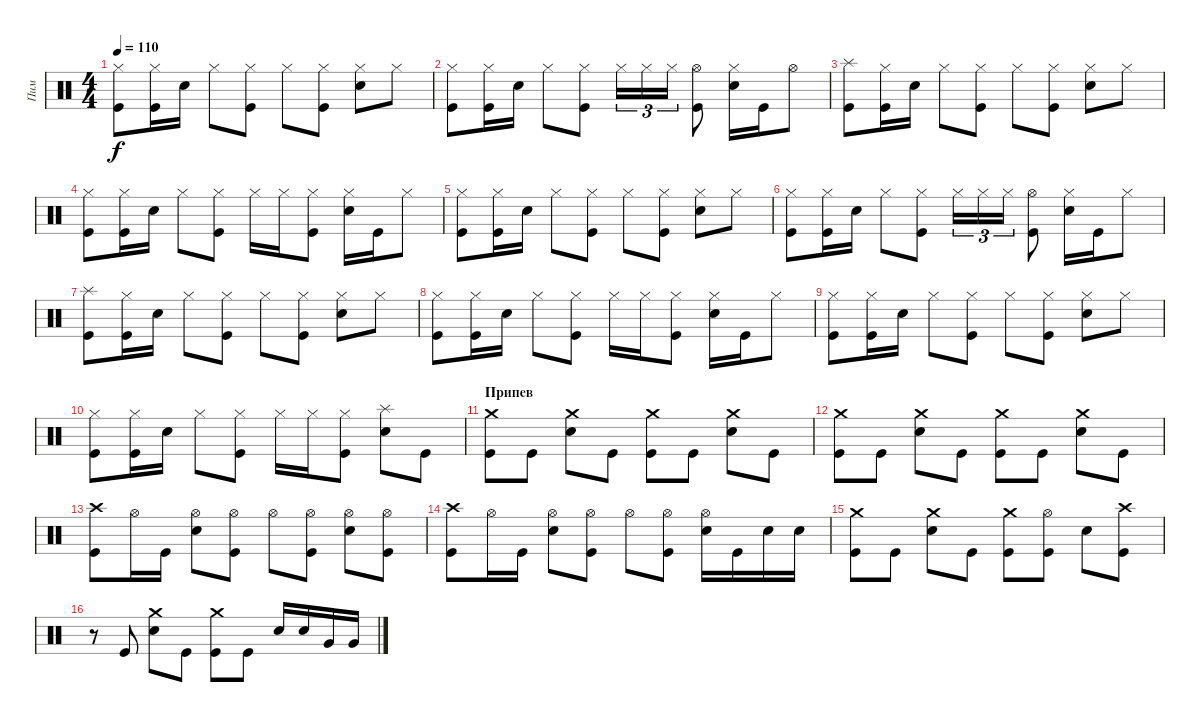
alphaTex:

\track ("Пим" "Пим") {instrument percussion}
\staff {score}
\articulation defaults
\ts (4 4)
\tempo 110
\clef neutral
\ks c
("Hi-Hat (closed)" "Kick (hit)").8{dy f} ("Hi-Hat (closed)" "Kick (hit)").16 "Snare (hit) 2".16 "Hi-Hat (closed)".8 ("Hi-Hat (closed)" "Kick (hit)").8 "Hi-Hat (closed)".8 ("Hi-Hat (closed)" "Kick (hit)").8 ("Hi-Hat (closed)" "Snare (hit) 2").8 "Hi-Hat (closed)".8 |
("Hi-Hat (closed)" "Kick (hit)").8 ("Hi-Hat (closed)" "Kick (hit)").16 "Snare (hit) 2".16 "Hi-Hat (closed)".8 ("Hi-Hat (closed)" "Kick (hit)").8 "Hi-Hat (closed)".16{tu (3 2)} "Hi-Hat (closed)".16{tu (3 2)} "Hi-Hat (closed)".16{tu (3 2)} ("Hi-Hat (open)" "Kick (hit)").8 ("Hi-Hat (closed)" "Snare (hit) 2").16 "Kick (hit)".16 "Hi-Hat (open)".8 |
("Splash (hit)" "Kick (hit)").8 ("Hi-Hat (closed)" "Kick (hit)").16 "Snare (hit) 2".16 "Hi-Hat (closed)".8 ("Hi-Hat (closed)" "Kick (hit)").8 "Hi-Hat (closed)".8 ("Hi-Hat (closed)" "Kick (hit)").8 ("Hi-Hat (closed)" "Snare (hit) 2").8 "Hi-Hat (closed)".8 |
("Hi-Hat (closed)" "Kick (hit)").8 ("Hi-Hat (closed)" "Kick (hit)").16 "Snare (hit) 2".16 "Hi-Hat (closed)".8 ("Hi-Hat (closed)" "Kick (hit)").8 "Hi-Hat (closed)".16 "Hi-Hat (closed)".16 ("Hi-Hat (closed)" "Kick (hit)").8 ("Hi-Hat (closed)" "Snare (hit) 2").16 "Kick (hit)".16 "Hi-Hat (closed)".8 |
("Hi-Hat (closed)" "Kick (hit)").8 ("Hi-Hat (closed)" "Kick (hit)").16 "Snare (hit) 2".16 "Hi-Hat (closed)".8 ("Hi-Hat (closed)" "Kick (hit)").8 "Hi-Hat (closed)".8 ("Hi-Hat (closed)" "Kick (hit)").8 ("Hi-Hat (closed)" "Snare (hit) 2").8 "Hi-Hat (closed)".8 |
("Hi-Hat (closed)" "Kick (hit)").8 ("Hi-Hat (closed)" "Kick (hit)").16 "Snare (hit) 2".16 "Hi-Hat (closed)".8 ("Hi-Hat (closed)" "Kick (hit)").8 "Hi-Hat (closed)".16{tu (3 2)} "Hi-Hat (closed)".16{tu (3 2)} "Hi-Hat (closed)".16{tu (3 2)} ("Hi-Hat (open)" "Kick (hit)").8 ("Hi-Hat (closed)" "Snare (hit) 2").16 "Kick (hit)".16 "Hi-Hat (closed)".8 |
("Splash (hit)" "Kick (hit)").8 ("Hi-Hat (closed)" "Kick (hit)").16 "Snare (hit) 2".16 "Hi-Hat (closed)".8 ("Hi-Hat (closed)" "Kick (hit)").8 "Hi-Hat (closed)".8 ("Hi-Hat (closed)" "Kick (hit)").8 ("Hi-Hat (closed)" "Snare (hit) 2").8 "Hi-Hat (closed)".8 |
("Hi-Hat (closed)" "Kick (hit)").8 ("Hi-Hat (closed)" "Kick (hit)").16 "Snare (hit) 2".16 "Hi-Hat (closed)".8 ("Hi-Hat (closed)" "Kick (hit)").8 "Hi-Hat (closed)".16 "Hi-Hat (closed)".16 ("Hi-Hat (closed)" "Kick (hit)").8 ("Hi-Hat (closed)" "Snare (hit) 2").16 "Kick (hit)".16 "Hi-Hat (closed)".8 |
("Hi-Hat (closed)" "Kick (hit)").8 ("Hi-Hat (closed)" "Kick (hit)").16 "Snare (hit) 2".16 "Hi-Hat (closed)".8 ("Hi-Hat (closed)" "Kick (hit)").8 "Hi-Hat (closed)".8 ("Hi-Hat (closed)" "Kick (hit)").8 ("Hi-Hat (closed)" "Snare (hit) 2").8 "Hi-Hat (closed)".8 |
("Hi-Hat (closed)" "Kick (hit)").8 ("Hi-Hat (closed)" "Kick (hit)").16 "Snare (hit) 2".16 "Hi-Hat (closed)".8 ("Hi-Hat (closed)" "Kick (hit)").8 "Hi-Hat (closed)".16 "Hi-Hat (closed)".16 ("Hi-Hat (closed)" "Kick (hit)").8 ("Splash (hit)" "Snare (hit) 2").8 "Kick (hit)".8 |
\section ("" "Припев")
("Crash medium (hit)" "Kick (hit)").8 "Kick (hit)".8 ("Crash medium (hit)" "Snare (hit) 2").8 "Kick (hit)".8 ("Crash medium (hit)" "Kick (hit)").8 "Kick (hit)".8 ("Crash medium (hit)" "Snare (hit) 2").8 "Kick (hit)".8 |
("Crash medium (hit)" "Kick (hit)").8 "Kick (hit)".8 ("Crash medium (hit)" "Snare (hit) 2").8 "Kick (hit)".8 ("Crash medium (hit)" "Kick (hit)").8 "Kick (hit)".8 ("Crash medium (hit)" "Snare (hit) 2").8 "Kick (hit)".8 |
("Crash high (hit)" "Kick (hit)").8 "Hi-Hat (open)".16 "Kick (hit)".16 ("Hi-Hat (open)" "Snare (hit) 2").8 ("Hi-Hat (open)" "Kick (hit)").8 "Hi-Hat (open)".8 ("Hi-Hat (open)" "Kick (hit)").8 ("Hi-Hat (open)" "Snare (hit) 2").8 ("Hi-Hat (open)" "Kick (hit)").8 |
("Crash high (hit)" "Kick (hit)").8 "Hi-Hat (open)".16 "Kick (hit)".16 ("Hi-Hat (open)" "Snare (hit) 2").8 ("Hi-Hat (open)" "Kick (hit)").8 "Hi-Hat (open)".8 ("Hi-Hat (open)" "Kick (hit)").8 ("Hi-Hat (open)" "Snare (hit) 2").16 "Kick (hit)".16 "Snare (hit) 2".16 "Snare (hit) 2".16 |
("Crash medium (hit)" "Kick (hit)").8 "Kick (hit)".8 ("Crash medium (hit)" "Snare (hit) 2").8 "Kick (hit)".8 ("Crash medium (hit)" "Kick (hit)").8 ("Hi-Hat (open)" "Kick (hit)").8 "Snare (hit) 2".8 ("Crash high (hit)" "Kick (hit)").8 |
r.8 "Kick (hit)".8 ("Crash medium (hit)" "Snare (hit) 2").8 "Kick (hit)".8 ("Crash medium (hit)" "Kick (hit)").8 "Kick (hit)".8 "Snare (hit) 2".16 "Snare (hit) 2".16 "Very Low Tom (hit)".16 "Very Low Tom (hit)".16
